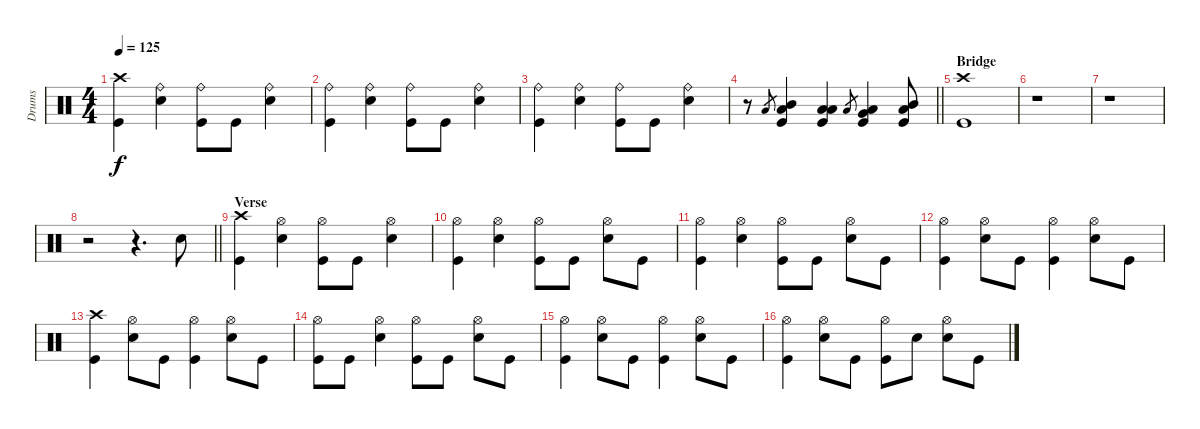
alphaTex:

\track ("Drums" "Drums") {instrument percussion}
\staff {score}
\articulation defaults
\ts (4 4)
\tempo 125
\clef neutral
\ks c
("Crash high (hit)" "Kick (hit)").4{dy f} ("Ride (bell)" "Electric Snare (hit)").4 ("Ride (bell)" "Kick (hit)").8 "Kick (hit)".8 ("Ride (bell)" "Electric Snare (hit)").4 |
("Ride (bell)" "Kick (hit)").4 ("Ride (bell)" "Electric Snare (hit)").4 ("Ride (bell)" "Kick (hit)").8 "Kick (hit)".8 ("Ride (bell)" "Electric Snare (hit)").4 |
("Ride (bell)" "Kick (hit)").4 ("Ride (bell)" "Electric Snare (hit)").4 ("Ride (bell)" "Kick (hit)").8 "Kick (hit)".8 ("Ride (bell)" "Electric Snare (hit)").4 |
\barLineRight lightlight
r.8 "Low Floor Tom (hit)".8{gr} ("Mid Tom (hit)" "Low Floor Tom (hit)" "Kick (hit)").4 ("Low Tom (hit)" "Low Floor Tom (hit)" "Kick (hit)").4 "Low Floor Tom (hit)".8{gr} ("Very Low Tom (hit)" "Low Floor Tom (hit)" "Kick (hit)").4 ("Mid Tom (hit)" "Low Floor Tom (hit)" "Kick (hit)").8 |
\section ("" "Bridge ")
("Crash high (hit)" "Kick (hit)").1 |
r.1 |
r.1 |
\barLineRight lightlight
r.2 r.4{d} "Electric Snare (hit)".8 |
\section ("" "Verse ")
("Crash high (hit)" "Kick (hit)").4 ("Hi-Hat (open)" "Electric Snare (hit)").4 ("Hi-Hat (open)" "Kick (hit)").8 "Kick (hit)".8 ("Hi-Hat (open)" "Electric Snare (hit)").4 |
("Hi-Hat (open)" "Kick (hit)").4 ("Hi-Hat (open)" "Electric Snare (hit)").4 ("Hi-Hat (open)" "Kick (hit)").8 "Kick (hit)".8 ("Hi-Hat (open)" "Electric Snare (hit)").8 "Kick (hit)".8 |
("Hi-Hat (open)" "Kick (hit)").4 ("Hi-Hat (open)" "Electric Snare (hit)").4 ("Hi-Hat (open)" "Kick (hit)").8 "Kick (hit)".8 ("Hi-Hat (open)" "Electric Snare (hit)").8 "Kick (hit)".8 |
("Hi-Hat (open)" "Kick (hit)").4 ("Hi-Hat (open)" "Electric Snare (hit)").8 "Kick (hit)".8 ("Hi-Hat (open)" "Kick (hit)").4 ("Hi-Hat (open)" "Electric Snare (hit)").8 "Kick (hit)".8 |
("Crash high (hit)" "Kick (hit)").4 ("Hi-Hat (open)" "Electric Snare (hit)").8 "Kick (hit)".8 ("Hi-Hat (open)" "Kick (hit)").4 ("Hi-Hat (open)" "Electric Snare (hit)").8 "Kick (hit)".8 |
("Hi-Hat (open)" "Kick (hit)").8 "Kick (hit)".8 ("Hi-Hat (open)" "Electric Snare (hit)").4 ("Hi-Hat (open)" "Kick (hit)").8 "Kick (hit)".8 ("Hi-Hat (open)" "Electric Snare (hit)").8 "Kick (hit)".8 |
("Hi-Hat (open)" "Kick (hit)").4 ("Hi-Hat (open)" "Electric Snare (hit)").8 "Kick (hit)".8 ("Hi-Hat (open)" "Kick (hit)").4 ("Hi-Hat (open)" "Electric Snare (hit)").8 "Kick (hit)".8 |
("Hi-Hat (open)" "Kick (hit)").4 ("Hi-Hat (open)" "Electric Snare (hit)").8 "Kick (hit)".8 ("Hi-Hat (open)" "Kick (hit)").8 "Electric Snare (hit)".8 ("Hi-Hat (open)" "Electric Snare (hit)").8 "Kick (hit)".8
